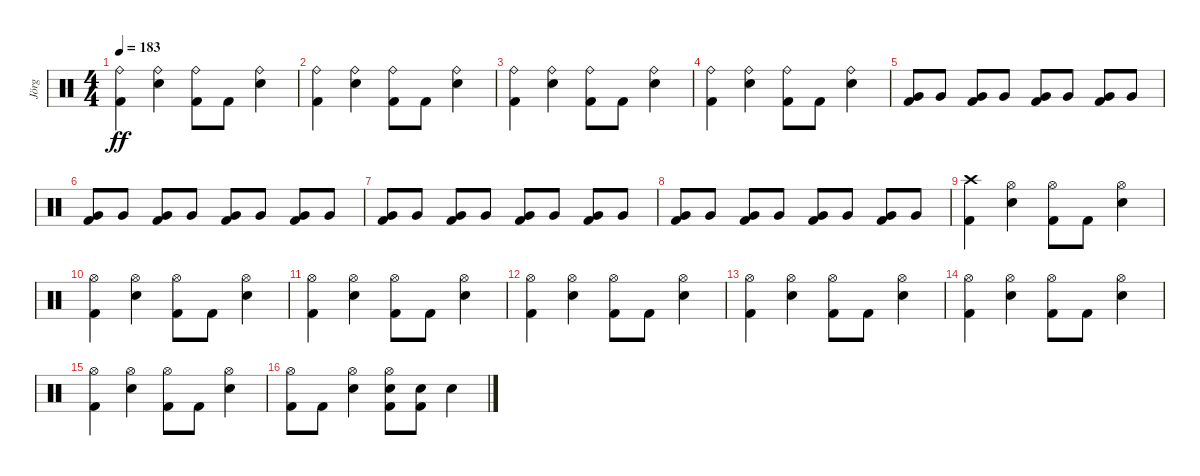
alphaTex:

\track ("Jörg" "Jörg") {instrument percussion}
\staff {score}
\articulation defaults
\ts (4 4)
\tempo 183
\clef neutral
\ks c
("Kick (hit) 2" "Ride (bell)").4{dy ff} ("Snare (hit) 2" "Ride (bell)").4 ("Kick (hit) 2" "Ride (bell)").8 "Kick (hit) 2".8 ("Snare (hit) 2" "Ride (bell)").4 |
("Kick (hit) 2" "Ride (bell)").4 ("Snare (hit) 2" "Ride (bell)").4 ("Kick (hit) 2" "Ride (bell)").8 "Kick (hit) 2".8 ("Snare (hit) 2" "Ride (bell)").4 |
("Kick (hit) 2" "Ride (bell)").4 ("Snare (hit) 2" "Ride (bell)").4 ("Kick (hit) 2" "Ride (bell)").8 "Kick (hit) 2".8 ("Snare (hit) 2" "Ride (bell)").4 |
("Kick (hit) 2" "Ride (bell)").4 ("Snare (hit) 2" "Ride (bell)").4 ("Kick (hit) 2" "Ride (bell)").8 "Kick (hit) 2".8 ("Snare (hit) 2" "Ride (bell)").4 |
("Very Low Tom (hit)" "Kick (hit) 2").8 "Very Low Tom (hit)".8 ("Very Low Tom (hit)" "Kick (hit) 2").8 "Very Low Tom (hit)".8 ("Very Low Tom (hit)" "Kick (hit) 2").8 "Very Low Tom (hit)".8 ("Very Low Tom (hit)" "Kick (hit) 2").8 "Very Low Tom (hit)".8 |
("Very Low Tom (hit)" "Kick (hit) 2").8 "Very Low Tom (hit)".8 ("Very Low Tom (hit)" "Kick (hit) 2").8 "Very Low Tom (hit)".8 ("Very Low Tom (hit)" "Kick (hit) 2").8 "Very Low Tom (hit)".8 ("Very Low Tom (hit)" "Kick (hit) 2").8 "Very Low Tom (hit)".8 |
("Very Low Tom (hit)" "Kick (hit) 2").8 "Very Low Tom (hit)".8 ("Very Low Tom (hit)" "Kick (hit) 2").8 "Very Low Tom (hit)".8 ("Very Low Tom (hit)" "Kick (hit) 2").8 "Very Low Tom (hit)".8 ("Very Low Tom (hit)" "Kick (hit) 2").8 "Very Low Tom (hit)".8 |
("Very Low Tom (hit)" "Kick (hit) 2").8 "Very Low Tom (hit)".8 ("Very Low Tom (hit)" "Kick (hit) 2").8 "Very Low Tom (hit)".8 ("Very Low Tom (hit)" "Kick (hit) 2").8 "Very Low Tom (hit)".8 ("Very Low Tom (hit)" "Kick (hit) 2").8 "Very Low Tom (hit)".8 |
("Kick (hit) 2" "Crash high (hit)").4 ("Snare (hit) 2" "Hi-Hat (open)").4 ("Kick (hit) 2" "Hi-Hat (open)").8 "Kick (hit) 2".8 ("Snare (hit) 2" "Hi-Hat (open)").4 |
("Kick (hit) 2" "Hi-Hat (open)").4 ("Snare (hit) 2" "Hi-Hat (open)").4 ("Kick (hit) 2" "Hi-Hat (open)").8 "Kick (hit) 2".8 ("Snare (hit) 2" "Hi-Hat (open)").4 |
("Kick (hit) 2" "Hi-Hat (open)").4 ("Snare (hit) 2" "Hi-Hat (open)").4 ("Kick (hit) 2" "Hi-Hat (open)").8 "Kick (hit) 2".8 ("Snare (hit) 2" "Hi-Hat (open)").4 |
("Kick (hit) 2" "Hi-Hat (open)").4 ("Snare (hit) 2" "Hi-Hat (open)").4 ("Kick (hit) 2" "Hi-Hat (open)").8 "Kick (hit) 2".8 ("Snare (hit) 2" "Hi-Hat (open)").4 |
("Kick (hit) 2" "Hi-Hat (open)").4 ("Snare (hit) 2" "Hi-Hat (open)").4 ("Kick (hit) 2" "Hi-Hat (open)").8 "Kick (hit) 2".8 ("Snare (hit) 2" "Hi-Hat (open)").4 |
("Kick (hit) 2" "Hi-Hat (open)").4 ("Snare (hit) 2" "Hi-Hat (open)").4 ("Kick (hit) 2" "Hi-Hat (open)").8 "Kick (hit) 2".8 ("Snare (hit) 2" "Hi-Hat (open)").4 |
("Kick (hit) 2" "Hi-Hat (open)").4 ("Snare (hit) 2" "Hi-Hat (open)").4 ("Kick (hit) 2" "Hi-Hat (open)").8 "Kick (hit) 2".8 ("Snare (hit) 2" "Hi-Hat (open)").4 |
("Kick (hit) 2" "Hi-Hat (open)").8 "Kick (hit) 2".8 ("Snare (hit) 2" "Hi-Hat (open)").4 ("Snare (hit) 2" "Kick (hit) 2" "Hi-Hat (open)").8 ("Snare (hit) 2" "Kick (hit) 2").8 "Snare (hit) 2".4
